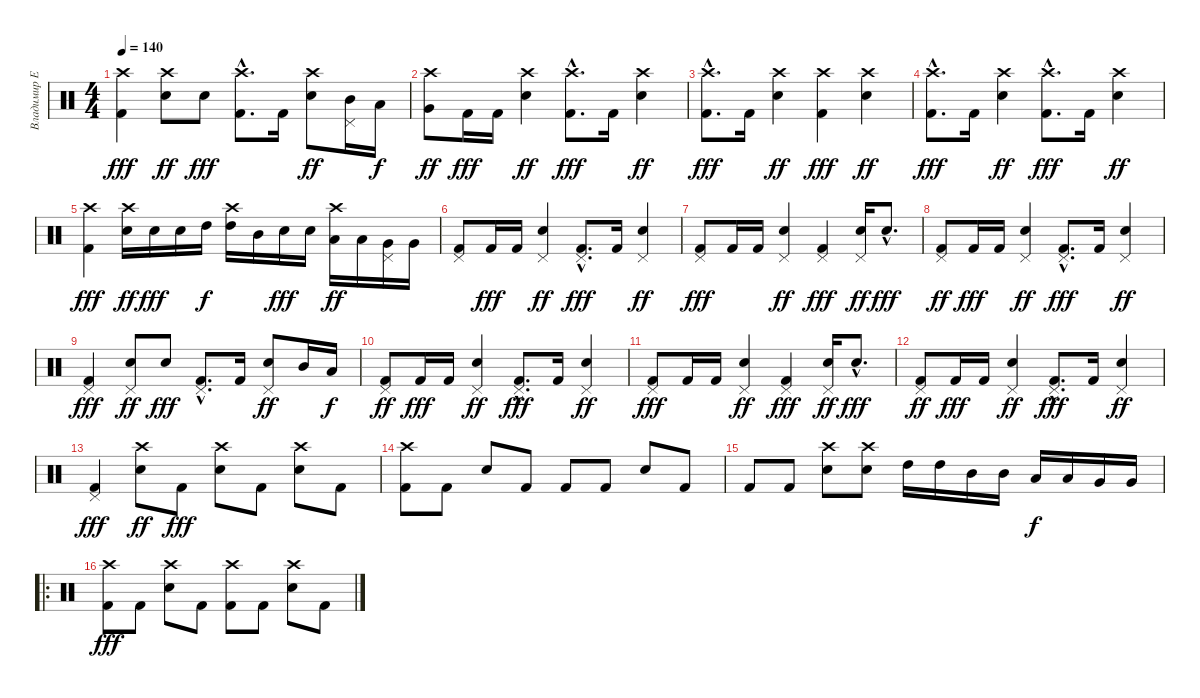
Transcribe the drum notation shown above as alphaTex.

\track ("Владимир Ермаков" "Владимир Е") {instrument percussion}
\staff {score}
\articulation defaults
\ts (4 4)
\tempo 140
\clef neutral
\ks c
("Kick (hit) 2" "Crash high (hit)").4{dy fff} ("Electric Snare (hit)" "Crash high (hit)").8{dy ff} "Electric Snare (hit)".8{dy fff} ("Kick (hit) 2"{hac} "Crash high (hit)"{hac}).8{d} "Kick (hit) 2".16 ("Electric Snare (hit)" "Crash high (hit)").8{dy ff} ("Mid Tom (hit)" "Pedal Hi-Hat (hit)").16 "Low Tom (hit)".16{dy f} |
("Very Low Tom (hit)" "Crash high (hit)").8{dy ff} "Kick (hit) 2".16{dy fff} "Kick (hit) 2".16 ("Electric Snare (hit)" "Crash high (hit)").4{dy ff} ("Kick (hit) 2"{hac} "Crash high (hit)"{hac}).8{d dy fff} "Kick (hit) 2".16 ("Electric Snare (hit)" "Crash high (hit)").4{dy ff} |
("Kick (hit) 2"{hac} "Crash high (hit)"{hac}).8{d dy fff} "Kick (hit) 2".16 ("Electric Snare (hit)" "Crash high (hit)").4{dy ff} ("Kick (hit) 2" "Crash high (hit)").4{dy fff} ("Electric Snare (hit)" "Crash high (hit)").4{dy ff} |
("Kick (hit) 2"{hac} "Crash high (hit)"{hac}).8{d dy fff} "Kick (hit) 2".16 ("Electric Snare (hit)" "Crash high (hit)").4{dy ff} ("Kick (hit) 2"{hac} "Crash high (hit)"{hac}).8{d dy fff} "Kick (hit) 2".16 ("Electric Snare (hit)" "Crash high (hit)").4{dy ff} |
("Kick (hit) 2" "Crash high (hit)").4{dy fff} ("Electric Snare (hit)" "Crash high (hit)").16{dy ff} "Electric Snare (hit)".16{dy fff} "Electric Snare (hit)".16 "High Tom (hit)".16{dy f} ("High Tom (hit)" "Crash high (hit)").16 "Mid Tom (hit)".16 "Electric Snare (hit)".16{dy fff} "Electric Snare (hit)".16 ("Low Tom (hit)" "Crash high (hit)").16{dy ff} "Low Tom (hit)".16 ("Very Low Tom (hit)" "Pedal Hi-Hat (hit)").16 "Very Low Tom (hit)".16 |
("Kick (hit) 2" "Pedal Hi-Hat (hit)").8 "Kick (hit) 2".16{dy fff} "Kick (hit) 2".16 ("Electric Snare (hit)" "Pedal Hi-Hat (hit)").4{dy ff} ("Kick (hit) 2"{hac} "Pedal Hi-Hat (hit)"{hac}).8{d dy fff} "Kick (hit) 2".16 ("Electric Snare (hit)" "Pedal Hi-Hat (hit)").4{dy ff} |
("Kick (hit) 2" "Pedal Hi-Hat (hit)").8{dy fff} "Kick (hit) 2".16 "Kick (hit) 2".16 ("Electric Snare (hit)" "Pedal Hi-Hat (hit)").4{dy ff} ("Kick (hit) 2" "Pedal Hi-Hat (hit)").4{dy fff} ("Electric Snare (hit)" "Pedal Hi-Hat (hit)").16{dy ff} "Electric Snare (hit)"{hac}.8{d dy fff} |
("Kick (hit) 2" "Pedal Hi-Hat (hit)").8{dy ff} "Kick (hit) 2".16{dy fff} "Kick (hit) 2".16 ("Electric Snare (hit)" "Pedal Hi-Hat (hit)").4{dy ff} ("Kick (hit) 2"{hac} "Pedal Hi-Hat (hit)"{hac}).8{d dy fff} "Kick (hit) 2".16 ("Electric Snare (hit)" "Pedal Hi-Hat (hit)").4{dy ff} |
("Kick (hit) 2" "Pedal Hi-Hat (hit)").4{dy fff} ("Electric Snare (hit)" "Pedal Hi-Hat (hit)").8{dy ff} "Electric Snare (hit)".8{dy fff} ("Kick (hit) 2"{hac} "Pedal Hi-Hat (hit)"{hac}).8{d} "Kick (hit) 2".16 ("Electric Snare (hit)" "Pedal Hi-Hat (hit)").8{dy ff} "Mid Tom (hit)".16 "Low Tom (hit)".16{dy f} |
("Kick (hit) 2" "Pedal Hi-Hat (hit)").8{dy ff} "Kick (hit) 2".16{dy fff} "Kick (hit) 2".16 ("Electric Snare (hit)" "Pedal Hi-Hat (hit)").4{dy ff} ("Kick (hit) 2"{hac} "Pedal Hi-Hat (hit)"{hac}).8{d dy fff} "Kick (hit) 2".16 ("Electric Snare (hit)" "Pedal Hi-Hat (hit)").4{dy ff} |
("Kick (hit) 2" "Pedal Hi-Hat (hit)").8{dy fff} "Kick (hit) 2".16 "Kick (hit) 2".16 ("Electric Snare (hit)" "Pedal Hi-Hat (hit)").4{dy ff} ("Kick (hit) 2" "Pedal Hi-Hat (hit)").4{dy fff} ("Electric Snare (hit)" "Pedal Hi-Hat (hit)").16{dy ff} "Electric Snare (hit)"{hac}.8{d dy fff} |
("Kick (hit) 2" "Pedal Hi-Hat (hit)").8{dy ff} "Kick (hit) 2".16{dy fff} "Kick (hit) 2".16 ("Electric Snare (hit)" "Pedal Hi-Hat (hit)").4{dy ff} ("Kick (hit) 2"{hac} "Pedal Hi-Hat (hit)"{hac}).8{d dy fff} "Kick (hit) 2".16 ("Electric Snare (hit)" "Pedal Hi-Hat (hit)").4{dy ff} |
("Kick (hit) 2" "Pedal Hi-Hat (hit)").4{dy fff} ("Electric Snare (hit)" "Crash high (hit)").8{dy ff} "Kick (hit) 2".8{dy fff} ("Electric Snare (hit)" "Crash high (hit)").8 "Kick (hit) 2".8 ("Electric Snare (hit)" "Crash high (hit)").8 "Kick (hit) 2".8 |
("Crash high (hit)" "Kick (hit) 2").8 "Kick (hit) 2".8 "Electric Snare (hit)".8 "Kick (hit) 2".8 "Kick (hit) 2".8 "Kick (hit) 2".8 "Electric Snare (hit)".8 "Kick (hit) 2".8 |
"Kick (hit) 2".8 "Kick (hit) 2".8 ("Crash high (hit)" "Electric Snare (hit)").8 ("Crash high (hit)" "Electric Snare (hit)").8 "High Tom (hit)".16 "High Tom (hit)".16 "Mid Tom (hit)".16 "Mid Tom (hit)".16 "Low Tom (hit)".16{dy f} "Low Tom (hit)".16 "Very Low Tom (hit)".16 "Very Low Tom (hit)".16 |
\ro
("Crash high (hit)" "Kick (hit) 2").8{dy fff} "Kick (hit) 2".8 ("Crash high (hit)" "Electric Snare (hit)").8 "Kick (hit) 2".8 ("Crash high (hit)" "Kick (hit) 2").8 "Kick (hit) 2".8 ("Crash high (hit)" "Electric Snare (hit)").8 "Kick (hit) 2".8
